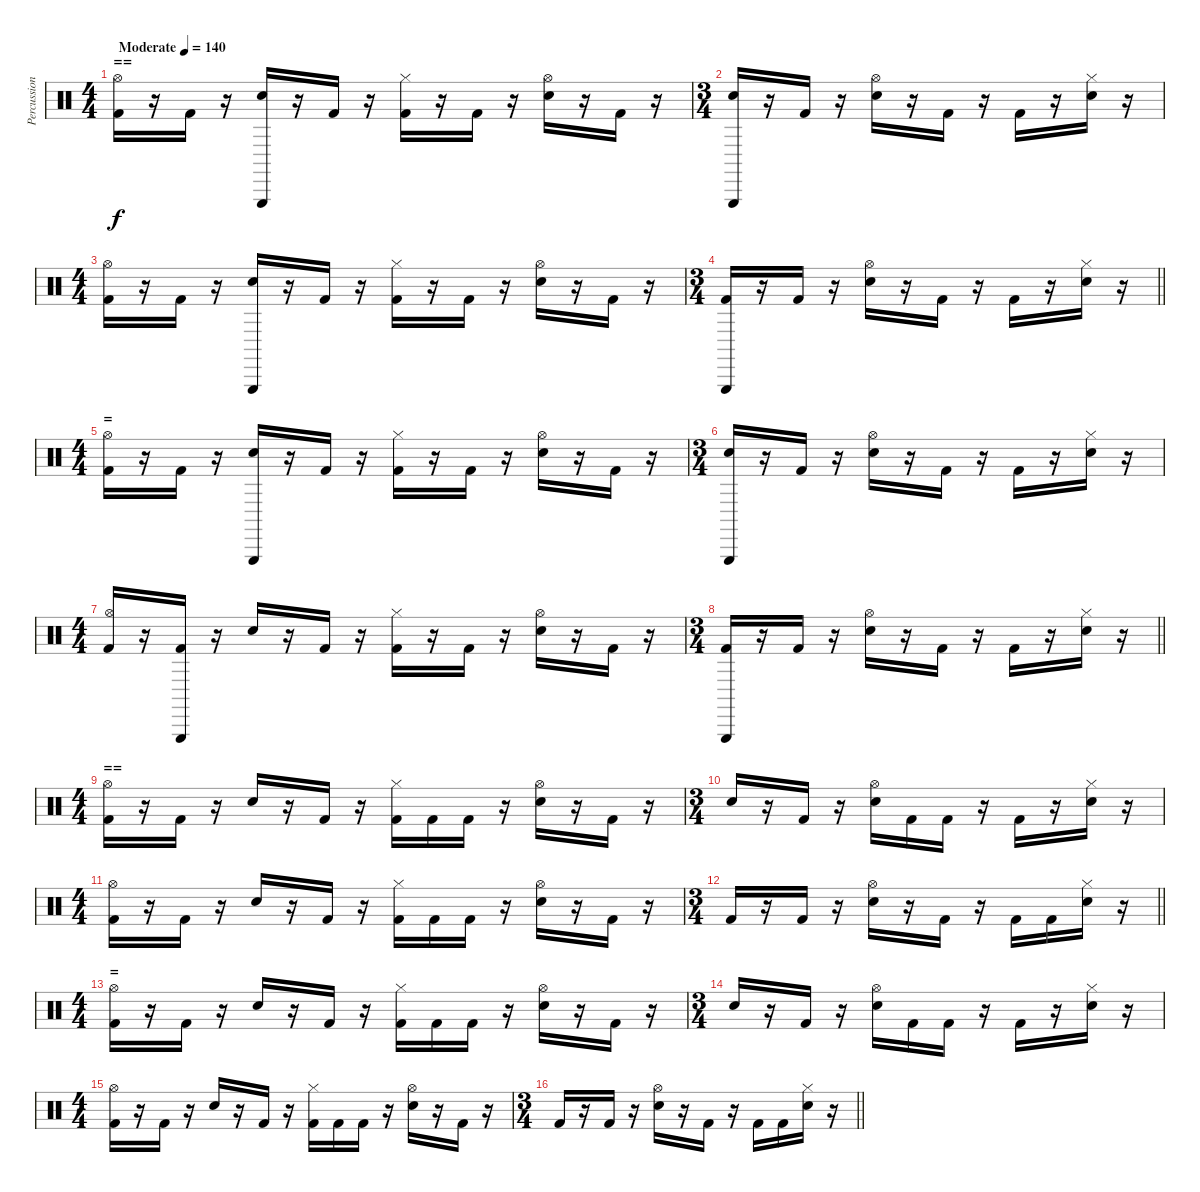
\track ("Percussion" "Percussion") {instrument percussion}
\staff {score}
\articulation defaults
\ts (4 4)
\section ("" "==")
\tempo (140 "Moderate")
\clef neutral
\ks c
("Kick (hit) 2" "Hi-Hat (open)").16{dy f} r.16 "Kick (hit) 2".16 r.16 ("Electric Snare (hit)" "Triangle (hit)").16 r.16 "Kick (hit) 2".16 r.16 ("Kick (hit) 2" "Hi-Hat (closed)").16 r.16 "Kick (hit) 2".16 r.16 ("Electric Snare (hit)" "Hi-Hat (open)").16 r.16 "Kick (hit) 2".16 r.16 |
\ts (3 4)
("Electric Snare (hit)" "Triangle (hit)").16 r.16 "Kick (hit) 2".16 r.16 ("Electric Snare (hit)" "Hi-Hat (open)").16 r.16 "Kick (hit) 2".16 r.16 "Kick (hit) 2".16 r.16 ("Electric Snare (hit)" "Hi-Hat (closed)").16 r.16 |
\ts (4 4)
("Kick (hit) 2" "Hi-Hat (open)").16 r.16 "Kick (hit) 2".16 r.16 ("Electric Snare (hit)" "Triangle (hit)").16 r.16 "Kick (hit) 2".16 r.16 ("Kick (hit) 2" "Hi-Hat (closed)").16 r.16 "Kick (hit) 2".16 r.16 ("Electric Snare (hit)" "Hi-Hat (open)").16 r.16 "Kick (hit) 2".16 r.16 |
\ts (3 4)
\barLineRight lightlight
("Kick (hit) 2" "Triangle (hit)").16 r.16 "Kick (hit) 2".16 r.16 ("Electric Snare (hit)" "Hi-Hat (open)").16 r.16 "Kick (hit) 2".16 r.16 "Kick (hit) 2".16 r.16 ("Electric Snare (hit)" "Hi-Hat (closed)").16 r.16 |
\ts (4 4)
\section ("" "=")
("Kick (hit) 2" "Hi-Hat (open)").16 r.16 "Kick (hit) 2".16 r.16 ("Electric Snare (hit)" "Triangle (hit)").16 r.16 "Kick (hit) 2".16 r.16 ("Kick (hit) 2" "Hi-Hat (closed)").16 r.16 "Kick (hit) 2".16 r.16 ("Electric Snare (hit)" "Hi-Hat (open)").16 r.16 "Kick (hit) 2".16 r.16 |
\ts (3 4)
("Electric Snare (hit)" "Triangle (hit)").16 r.16 "Kick (hit) 2".16 r.16 ("Electric Snare (hit)" "Hi-Hat (open)").16 r.16 "Kick (hit) 2".16 r.16 "Kick (hit) 2".16 r.16 ("Electric Snare (hit)" "Hi-Hat (closed)").16 r.16 |
\ts (4 4)
("Kick (hit) 2" "Hi-Hat (open)").16 r.16 ("Kick (hit) 2" "Triangle (hit)").16 r.16 "Electric Snare (hit)".16 r.16 "Kick (hit) 2".16 r.16 ("Kick (hit) 2" "Hi-Hat (closed)").16 r.16 "Kick (hit) 2".16 r.16 ("Electric Snare (hit)" "Hi-Hat (open)").16 r.16 "Kick (hit) 2".16 r.16 |
\ts (3 4)
\barLineRight lightlight
("Kick (hit) 2" "Triangle (hit)").16 r.16 "Kick (hit) 2".16 r.16 ("Electric Snare (hit)" "Hi-Hat (open)").16 r.16 "Kick (hit) 2".16 r.16 "Kick (hit) 2".16 r.16 ("Electric Snare (hit)" "Hi-Hat (closed)").16 r.16 |
\ts (4 4)
\section ("" "==")
("Kick (hit) 2" "Hi-Hat (open)").16 r.16 "Kick (hit) 2".16 r.16 "Electric Snare (hit)".16 r.16 "Kick (hit) 2".16 r.16 ("Kick (hit) 2" "Hi-Hat (closed)").16 "Kick (hit) 2".16 "Kick (hit) 2".16 r.16 ("Electric Snare (hit)" "Hi-Hat (open)").16 r.16 "Kick (hit) 2".16 r.16 |
\ts (3 4)
"Electric Snare (hit)".16 r.16 "Kick (hit) 2".16 r.16 ("Electric Snare (hit)" "Hi-Hat (open)").16 "Kick (hit) 2".16 "Kick (hit) 2".16 r.16 "Kick (hit) 2".16 r.16 ("Electric Snare (hit)" "Hi-Hat (closed)").16 r.16 |
\ts (4 4)
("Kick (hit) 2" "Hi-Hat (open)").16 r.16 "Kick (hit) 2".16 r.16 "Electric Snare (hit)".16 r.16 "Kick (hit) 2".16 r.16 ("Kick (hit) 2" "Hi-Hat (closed)").16 "Kick (hit) 2".16 "Kick (hit) 2".16 r.16 ("Electric Snare (hit)" "Hi-Hat (open)").16 r.16 "Kick (hit) 2".16 r.16 |
\ts (3 4)
\barLineRight lightlight "Kick (hit) 2".16
r.16 "Kick (hit) 2".16 r.16 ("Electric Snare (hit)" "Hi-Hat (open)").16 r.16 "Kick (hit) 2".16 r.16 "Kick (hit) 2".16 "Kick (hit) 2".16 ("Electric Snare (hit)" "Hi-Hat (closed)").16 r.16 |
\ts (4 4)
\section ("" "=")
("Kick (hit) 2" "Hi-Hat (open)").16 r.16 "Kick (hit) 2".16 r.16 "Electric Snare (hit)".16 r.16 "Kick (hit) 2".16 r.16 ("Kick (hit) 2" "Hi-Hat (closed)").16 "Kick (hit) 2".16 "Kick (hit) 2".16 r.16 ("Electric Snare (hit)" "Hi-Hat (open)").16 r.16 "Kick (hit) 2".16 r.16 |
\ts (3 4)
"Electric Snare (hit)".16 r.16 "Kick (hit) 2".16 r.16 ("Electric Snare (hit)" "Hi-Hat (open)").16 "Kick (hit) 2".16 "Kick (hit) 2".16 r.16 "Kick (hit) 2".16 r.16 ("Electric Snare (hit)" "Hi-Hat (closed)").16 r.16 |
\ts (4 4)
("Kick (hit) 2" "Hi-Hat (open)").16 r.16 "Kick (hit) 2".16 r.16 "Electric Snare (hit)".16 r.16 "Kick (hit) 2".16 r.16 ("Kick (hit) 2" "Hi-Hat (closed)").16 "Kick (hit) 2".16 "Kick (hit) 2".16 r.16 ("Electric Snare (hit)" "Hi-Hat (open)").16 r.16 "Kick (hit) 2".16 r.16 |
\ts (3 4)
\barLineRight lightlight "Kick (hit) 2".16
r.16 "Kick (hit) 2".16 r.16 ("Electric Snare (hit)" "Hi-Hat (open)").16 r.16 "Kick (hit) 2".16 r.16 "Kick (hit) 2".16 "Kick (hit) 2".16 ("Electric Snare (hit)" "Hi-Hat (closed)").16 r.16
